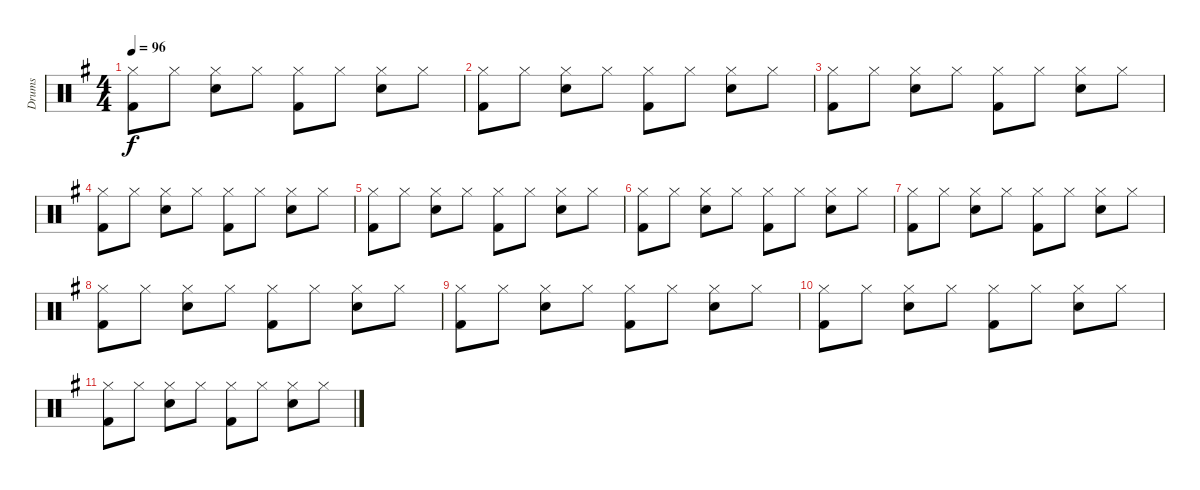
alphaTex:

\track ("Drums" "Drums") {instrument percussion}
\staff {score}
\articulation defaults
\ts (4 4)
\tempo 96
\clef neutral
\ks eminor
("Hi-Hat (closed)" "Kick (hit) 2").8{dy f} "Hi-Hat (closed)".8 ("Hi-Hat (closed)" "Snare (hit) 2").8 "Hi-Hat (closed)".8 ("Hi-Hat (closed)" "Kick (hit) 2").8 "Hi-Hat (closed)".8 ("Hi-Hat (closed)" "Snare (hit) 2").8 "Hi-Hat (closed)".8 |
("Hi-Hat (closed)" "Kick (hit) 2").8 "Hi-Hat (closed)".8 ("Hi-Hat (closed)" "Snare (hit) 2").8 "Hi-Hat (closed)".8 ("Hi-Hat (closed)" "Kick (hit) 2").8 "Hi-Hat (closed)".8 ("Hi-Hat (closed)" "Snare (hit) 2").8 "Hi-Hat (closed)".8 |
("Hi-Hat (closed)" "Kick (hit) 2").8 "Hi-Hat (closed)".8 ("Hi-Hat (closed)" "Snare (hit) 2").8 "Hi-Hat (closed)".8 ("Hi-Hat (closed)" "Kick (hit) 2").8 "Hi-Hat (closed)".8 ("Hi-Hat (closed)" "Snare (hit) 2").8 "Hi-Hat (closed)".8 |
("Hi-Hat (closed)" "Kick (hit) 2").8 "Hi-Hat (closed)".8 ("Hi-Hat (closed)" "Snare (hit) 2").8 "Hi-Hat (closed)".8 ("Hi-Hat (closed)" "Kick (hit) 2").8 "Hi-Hat (closed)".8 ("Hi-Hat (closed)" "Snare (hit) 2").8 "Hi-Hat (closed)".8 |
("Hi-Hat (closed)" "Kick (hit) 2").8 "Hi-Hat (closed)".8 ("Hi-Hat (closed)" "Snare (hit) 2").8 "Hi-Hat (closed)".8 ("Hi-Hat (closed)" "Kick (hit) 2").8 "Hi-Hat (closed)".8 ("Hi-Hat (closed)" "Snare (hit) 2").8 "Hi-Hat (closed)".8 |
("Hi-Hat (closed)" "Kick (hit) 2").8 "Hi-Hat (closed)".8 ("Hi-Hat (closed)" "Snare (hit) 2").8 "Hi-Hat (closed)".8 ("Hi-Hat (closed)" "Kick (hit) 2").8 "Hi-Hat (closed)".8 ("Hi-Hat (closed)" "Snare (hit) 2").8 "Hi-Hat (closed)".8 |
("Hi-Hat (closed)" "Kick (hit) 2").8 "Hi-Hat (closed)".8 ("Hi-Hat (closed)" "Snare (hit) 2").8 "Hi-Hat (closed)".8 ("Hi-Hat (closed)" "Kick (hit) 2").8 "Hi-Hat (closed)".8 ("Hi-Hat (closed)" "Snare (hit) 2").8 "Hi-Hat (closed)".8 |
("Hi-Hat (closed)" "Kick (hit) 2").8 "Hi-Hat (closed)".8 ("Hi-Hat (closed)" "Snare (hit) 2").8 "Hi-Hat (closed)".8 ("Hi-Hat (closed)" "Kick (hit) 2").8 "Hi-Hat (closed)".8 ("Hi-Hat (closed)" "Snare (hit) 2").8 "Hi-Hat (closed)".8 |
("Hi-Hat (closed)" "Kick (hit) 2").8 "Hi-Hat (closed)".8 ("Hi-Hat (closed)" "Snare (hit) 2").8 "Hi-Hat (closed)".8 ("Hi-Hat (closed)" "Kick (hit) 2").8 "Hi-Hat (closed)".8 ("Hi-Hat (closed)" "Snare (hit) 2").8 "Hi-Hat (closed)".8 |
("Hi-Hat (closed)" "Kick (hit) 2").8 "Hi-Hat (closed)".8 ("Hi-Hat (closed)" "Snare (hit) 2").8 "Hi-Hat (closed)".8 ("Hi-Hat (closed)" "Kick (hit) 2").8 "Hi-Hat (closed)".8 ("Hi-Hat (closed)" "Snare (hit) 2").8 "Hi-Hat (closed)".8 |
("Hi-Hat (closed)" "Kick (hit) 2").8 "Hi-Hat (closed)".8 ("Hi-Hat (closed)" "Snare (hit) 2").8 "Hi-Hat (closed)".8 ("Hi-Hat (closed)" "Kick (hit) 2").8 "Hi-Hat (closed)".8 ("Hi-Hat (closed)" "Snare (hit) 2").8 "Hi-Hat (closed)".8
